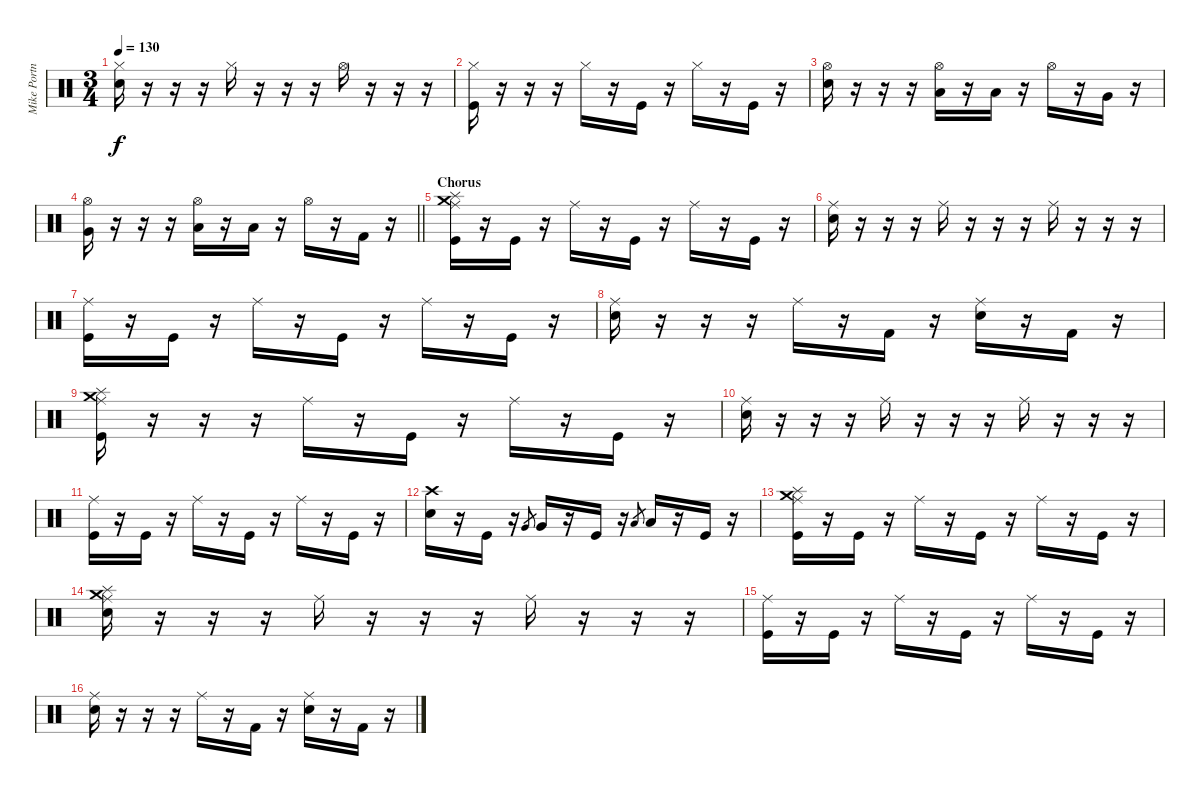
\track ("Mike Portnoy" "Mike Portn") {instrument percussion}
\staff {score}
\articulation defaults
\ts (3 4)
\tempo 130
\clef neutral
\ks c
("Electric Snare (hit)" "Hi-Hat (closed)").16{dy f} r.16 r.16 r.16 "Hi-Hat (closed)".16 r.16 r.16 r.16 "Hi-Hat (open)".16 r.16 r.16 r.16 |
("Kick (hit)" "Hi-Hat (closed)").16 r.16 r.16 r.16 "Hi-Hat (closed)".16 r.16 "Kick (hit)".16 r.16 "Hi-Hat (closed)".16 r.16 "Kick (hit)".16 r.16 |
("Electric Snare (hit)" "Hi-Hat (open)").16 r.16 r.16 r.16 ("Low Tom (hit)" "Hi-Hat (open)").16 r.16 "Low Tom (hit)".16 r.16 "Hi-Hat (open)".16 r.16 "Very Low Tom (hit)".16 r.16 |
\barLineRight lightlight
("Very Low Tom (hit)" "Hi-Hat (open)").16 r.16 r.16 r.16 ("Low Floor Tom (hit)" "Hi-Hat (open)").16 r.16 "Low Floor Tom (hit)".16 r.16 "Hi-Hat (open)".16 r.16 "Kick (hit) 2".16 r.16 |
\section ("" "Chorus")
("Kick (hit)" "Crash medium (hit)" "Splash (hit)" "Ride (middle)").16 r.16 "Kick (hit)".16 r.16 "Ride (middle)".16 r.16 "Kick (hit)".16 r.16 "Ride (middle)".16 r.16 "Kick (hit)".16 r.16 |
("Electric Snare (hit)" "Ride (middle)").16 r.16 r.16 r.16 "Ride (middle)".16 r.16 r.16 r.16 "Ride (middle)".16 r.16 r.16 r.16 |
("Kick (hit)" "Ride (middle)").16 r.16 "Kick (hit)".16 r.16 "Ride (middle)".16 r.16 "Kick (hit)".16 r.16 "Ride (middle)".16 r.16 "Kick (hit)".16 r.16 |
("Electric Snare (hit)" "Ride (middle)").16 r.16 r.16 r.16 "Ride (middle)".16 r.16 "Kick (hit) 2".16 r.16 ("Electric Snare (hit)" "Ride (middle)").16 r.16 "Kick (hit) 2".16 r.16 |
("Kick (hit)" "Crash medium (hit)" "Splash (hit)" "Ride (middle)").16 r.16 r.16 r.16 "Ride (middle)".16 r.16 "Kick (hit)".16 r.16 "Ride (middle)".16 r.16 "Kick (hit)".16 r.16 |
("Electric Snare (hit)" "Ride (middle)").16 r.16 r.16 r.16 "Ride (middle)".16 r.16 r.16 r.16 "Ride (middle)".16 r.16 r.16 r.16 |
("Kick (hit)" "Ride (middle)").16 r.16 "Kick (hit)".16 r.16 "Ride (middle)".16 r.16 "Kick (hit)".16 r.16 "Ride (middle)".16 r.16 "Kick (hit)".16 r.16 |
("Electric Snare (hit)" "Crash high (hit)").16 r.16 "Kick (hit)".16 r.16 "Very Low Tom (hit)".8{gr} "Very Low Tom (hit)".16 r.16 "Kick (hit)".16 r.16 "Low Floor Tom (hit)".8{gr} "Low Floor Tom (hit)".16 r.16 "Kick (hit)".16 r.16 |
("Kick (hit)" "Crash medium (hit)" "Splash (hit)" "Ride (middle)").16 r.16 "Kick (hit)".16 r.16 "Ride (middle)".16 r.16 "Kick (hit)".16 r.16 "Ride (middle)".16 r.16 "Kick (hit)".16 r.16 |
("Electric Snare (hit)" "Crash medium (hit)" "Splash (hit)" "Ride (middle)").16 r.16 r.16 r.16 "Ride (middle)".16 r.16 r.16 r.16 "Ride (middle)".16 r.16 r.16 r.16 |
("Kick (hit)" "Ride (middle)").16 r.16 "Kick (hit)".16 r.16 "Ride (middle)".16 r.16 "Kick (hit)".16 r.16 "Ride (middle)".16 r.16 "Kick (hit)".16 r.16 |
("Electric Snare (hit)" "Ride (middle)").16 r.16 r.16 r.16 "Ride (middle)".16 r.16 "Kick (hit) 2".16 r.16 ("Electric Snare (hit)" "Ride (middle)").16 r.16 "Kick (hit) 2".16 r.16
